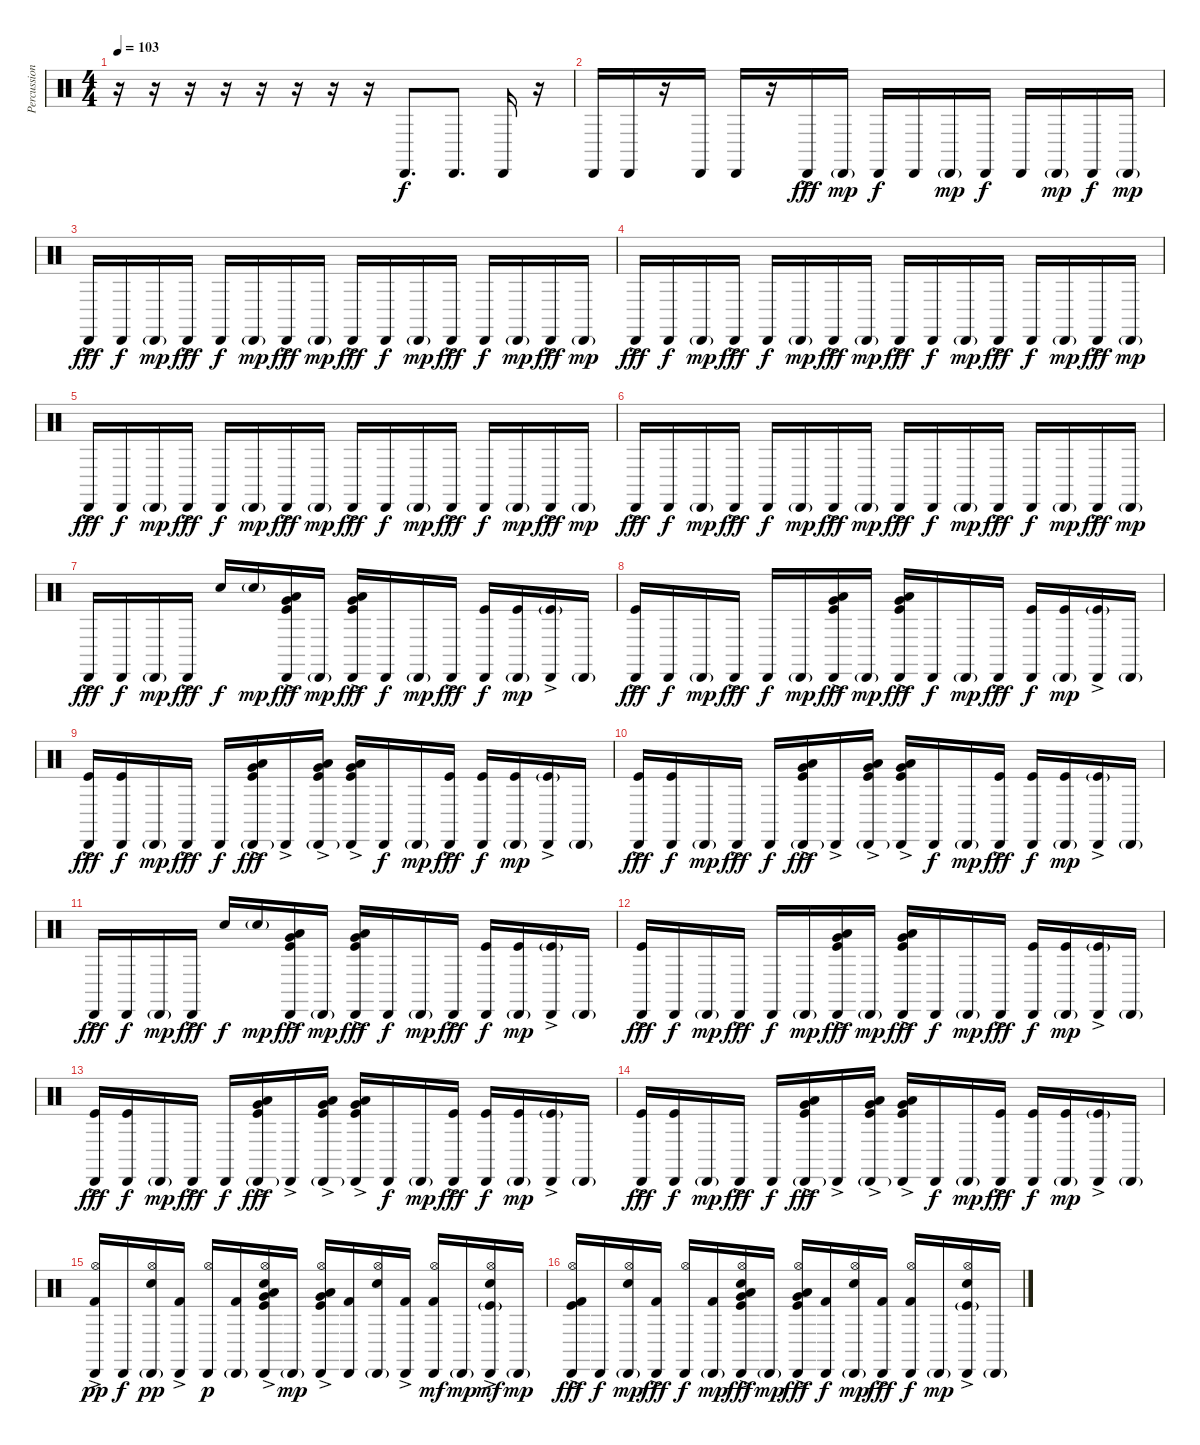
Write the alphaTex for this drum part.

\track ("Percussion" "Percussion") {instrument percussion}
\staff {score}
\articulation defaults
\ts (4 4)
\tempo 103
\clef neutral
\ks c
r.16{dy f} r.16 r.16 r.16 r.16 r.16 r.16 r.16 "Cabasa (hit)".8{d} "Cabasa (hit)".8{d} "Cabasa (hit)".16 r.16 |
"Cabasa (hit)".16 "Cabasa (hit)".16 r.16 "Cabasa (hit)".16 "Cabasa (hit)".16 r.16 "Cabasa (hit)"{ac}.16{dy fff} "Cabasa (hit)"{g}.16{dy mp} "Cabasa (hit)".16{dy f} "Cabasa (hit)".16 "Cabasa (hit)"{g}.16{dy mp} "Cabasa (hit)".16{dy f} "Cabasa (hit)".16 "Cabasa (hit)"{g}.16{dy mp} "Cabasa (hit)".16{dy f} "Cabasa (hit)"{g}.16{dy mp} |
"Cabasa (hit)"{ac}.16{dy fff} "Cabasa (hit)".16{dy f} "Cabasa (hit)"{g}.16{dy mp} "Cabasa (hit)"{ac}.16{dy fff} "Cabasa (hit)".16{dy f} "Cabasa (hit)"{g}.16{dy mp} "Cabasa (hit)"{ac}.16{dy fff} "Cabasa (hit)"{g}.16{dy mp} "Cabasa (hit)"{ac}.16{dy fff} "Cabasa (hit)".16{dy f} "Cabasa (hit)"{g}.16{dy mp} "Cabasa (hit)"{ac}.16{dy fff} "Cabasa (hit)".16{dy f} "Cabasa (hit)"{g}.16{dy mp} "Cabasa (hit)"{ac}.16{dy fff} "Cabasa (hit)"{g}.16{dy mp} |
"Cabasa (hit)"{ac}.16{dy fff} "Cabasa (hit)".16{dy f} "Cabasa (hit)"{g}.16{dy mp} "Cabasa (hit)"{ac}.16{dy fff} "Cabasa (hit)".16{dy f} "Cabasa (hit)"{g}.16{dy mp} "Cabasa (hit)"{ac}.16{dy fff} "Cabasa (hit)"{g}.16{dy mp} "Cabasa (hit)"{ac}.16{dy fff} "Cabasa (hit)".16{dy f} "Cabasa (hit)"{g}.16{dy mp} "Cabasa (hit)"{ac}.16{dy fff} "Cabasa (hit)".16{dy f} "Cabasa (hit)"{g}.16{dy mp} "Cabasa (hit)"{ac}.16{dy fff} "Cabasa (hit)"{g}.16{dy mp} |
"Cabasa (hit)"{ac}.16{dy fff} "Cabasa (hit)".16{dy f} "Cabasa (hit)"{g}.16{dy mp} "Cabasa (hit)"{ac}.16{dy fff} "Cabasa (hit)".16{dy f} "Cabasa (hit)"{g}.16{dy mp} "Cabasa (hit)"{ac}.16{dy fff} "Cabasa (hit)"{g}.16{dy mp} "Cabasa (hit)"{ac}.16{dy fff} "Cabasa (hit)".16{dy f} "Cabasa (hit)"{g}.16{dy mp} "Cabasa (hit)"{ac}.16{dy fff} "Cabasa (hit)".16{dy f} "Cabasa (hit)"{g}.16{dy mp} "Cabasa (hit)"{ac}.16{dy fff} "Cabasa (hit)"{g}.16{dy mp} |
"Cabasa (hit)"{ac}.16{dy fff} "Cabasa (hit)".16{dy f} "Cabasa (hit)"{g}.16{dy mp} "Cabasa (hit)"{ac}.16{dy fff} "Cabasa (hit)".16{dy f} "Cabasa (hit)"{g}.16{dy mp} "Cabasa (hit)"{ac}.16{dy fff} "Cabasa (hit)"{g}.16{dy mp} "Cabasa (hit)"{ac}.16{dy fff} "Cabasa (hit)".16{dy f} "Cabasa (hit)"{g}.16{dy mp} "Cabasa (hit)"{ac}.16{dy fff} "Cabasa (hit)".16{dy f} "Cabasa (hit)"{g}.16{dy mp} "Cabasa (hit)"{ac}.16{dy fff} "Cabasa (hit)"{g}.16{dy mp} |
"Cabasa (hit)"{ac}.16{dy fff} "Cabasa (hit)".16{dy f} "Cabasa (hit)"{g}.16{dy mp} "Cabasa (hit)"{ac}.16{dy fff} "Snare (hit)".16{dy f} "Snare (hit)"{g}.16{dy mp} ("Cabasa (hit)"{ac} "Low Floor Tom (hit)"{ac} "Very Low Tom (hit)"{ac} "Kick (hit)"{ac}).16{dy fff} "Cabasa (hit)"{g}.16{dy mp} ("Cabasa (hit)"{ac} "Low Floor Tom (hit)"{ac} "Very Low Tom (hit)"{ac} "Kick (hit)"{ac}).16{dy fff} "Cabasa (hit)".16{dy f} "Cabasa (hit)"{g}.16{dy mp} "Cabasa (hit)"{ac}.16{dy fff} ("Cabasa (hit)" "Kick (hit)").16{dy f} ("Cabasa (hit)"{g} "Kick (hit)").16{dy mp} ("Cabasa (hit)"{ac} "Kick (hit)"{g}).16 "Cabasa (hit)"{g}.16 |
("Cabasa (hit)"{ac} "Kick (hit)").16{dy fff} "Cabasa (hit)".16{dy f} "Cabasa (hit)"{g}.16{dy mp} "Cabasa (hit)"{ac}.16{dy fff} "Cabasa (hit)".16{dy f} "Cabasa (hit)"{g}.16{dy mp} ("Cabasa (hit)"{ac} "Low Floor Tom (hit)"{ac} "Very Low Tom (hit)"{ac} "Kick (hit)"{ac}).16{dy fff} "Cabasa (hit)"{g}.16{dy mp} ("Cabasa (hit)"{ac} "Low Floor Tom (hit)"{ac} "Very Low Tom (hit)"{ac} "Kick (hit)"{ac}).16{dy fff} "Cabasa (hit)".16{dy f} "Cabasa (hit)"{g}.16{dy mp} "Cabasa (hit)"{ac}.16{dy fff} ("Cabasa (hit)" "Kick (hit)").16{dy f} ("Cabasa (hit)"{g} "Kick (hit)").16{dy mp} ("Cabasa (hit)"{ac} "Kick (hit)"{g}).16 "Cabasa (hit)"{g}.16 |
("Cabasa (hit)"{ac} "Kick (hit)").16{dy fff} ("Cabasa (hit)" "Kick (hit)").16{dy f} "Cabasa (hit)"{g}.16{dy mp} "Cabasa (hit)"{ac}.16{dy fff} "Cabasa (hit)".16{dy f} ("Cabasa (hit)"{g} "Low Floor Tom (hit)"{ac} "Very Low Tom (hit)"{ac} "Kick (hit)"{ac}).16{dy fff} "Cabasa (hit)"{ac}.16 ("Cabasa (hit)"{g} "Low Floor Tom (hit)"{ac} "Very Low Tom (hit)"{ac} "Kick (hit)"{ac}).16 ("Cabasa (hit)"{ac} "Low Floor Tom (hit)"{ac} "Very Low Tom (hit)"{ac} "Kick (hit)"{ac}).16 "Cabasa (hit)".16{dy f} "Cabasa (hit)"{g}.16{dy mp} ("Cabasa (hit)"{ac} "Kick (hit)").16{dy fff} ("Cabasa (hit)" "Kick (hit)").16{dy f} ("Cabasa (hit)"{g} "Kick (hit)").16{dy mp} ("Cabasa (hit)"{ac} "Kick (hit)"{g}).16 "Cabasa (hit)"{g}.16 |
("Cabasa (hit)"{ac} "Kick (hit)").16{dy fff} ("Cabasa (hit)" "Kick (hit)").16{dy f} "Cabasa (hit)"{g}.16{dy mp} "Cabasa (hit)"{ac}.16{dy fff} "Cabasa (hit)".16{dy f} ("Cabasa (hit)"{g} "Low Floor Tom (hit)"{ac} "Very Low Tom (hit)"{ac} "Kick (hit)"{ac}).16{dy fff} "Cabasa (hit)"{ac}.16 ("Cabasa (hit)"{g} "Low Floor Tom (hit)"{ac} "Very Low Tom (hit)"{ac} "Kick (hit)"{ac}).16 ("Cabasa (hit)"{ac} "Low Floor Tom (hit)"{ac} "Very Low Tom (hit)"{ac} "Kick (hit)"{ac}).16 "Cabasa (hit)".16{dy f} "Cabasa (hit)"{g}.16{dy mp} ("Cabasa (hit)"{ac} "Kick (hit)").16{dy fff} ("Cabasa (hit)" "Kick (hit)").16{dy f} ("Cabasa (hit)"{g} "Kick (hit)").16{dy mp} ("Cabasa (hit)"{ac} "Kick (hit)"{g}).16 "Cabasa (hit)"{g}.16 |
"Cabasa (hit)"{ac}.16{dy fff} "Cabasa (hit)".16{dy f} "Cabasa (hit)"{g}.16{dy mp} "Cabasa (hit)"{ac}.16{dy fff} "Snare (hit)".16{dy f} "Snare (hit)"{g}.16{dy mp} ("Cabasa (hit)"{ac} "Low Floor Tom (hit)"{ac} "Very Low Tom (hit)"{ac} "Kick (hit)"{ac}).16{dy fff} "Cabasa (hit)"{g}.16{dy mp} ("Cabasa (hit)"{ac} "Low Floor Tom (hit)"{ac} "Very Low Tom (hit)"{ac} "Kick (hit)"{ac}).16{dy fff} "Cabasa (hit)".16{dy f} "Cabasa (hit)"{g}.16{dy mp} "Cabasa (hit)"{ac}.16{dy fff} ("Cabasa (hit)" "Kick (hit)").16{dy f} ("Cabasa (hit)"{g} "Kick (hit)").16{dy mp} ("Cabasa (hit)"{ac} "Kick (hit)"{g}).16 "Cabasa (hit)"{g}.16 |
("Cabasa (hit)"{ac} "Kick (hit)").16{dy fff} "Cabasa (hit)".16{dy f} "Cabasa (hit)"{g}.16{dy mp} "Cabasa (hit)"{ac}.16{dy fff} "Cabasa (hit)".16{dy f} "Cabasa (hit)"{g}.16{dy mp} ("Cabasa (hit)"{ac} "Low Floor Tom (hit)"{ac} "Very Low Tom (hit)"{ac} "Kick (hit)"{ac}).16{dy fff} "Cabasa (hit)"{g}.16{dy mp} ("Cabasa (hit)"{ac} "Low Floor Tom (hit)"{ac} "Very Low Tom (hit)"{ac} "Kick (hit)"{ac}).16{dy fff} "Cabasa (hit)".16{dy f} "Cabasa (hit)"{g}.16{dy mp} "Cabasa (hit)"{ac}.16{dy fff} ("Cabasa (hit)" "Kick (hit)").16{dy f} ("Cabasa (hit)"{g} "Kick (hit)").16{dy mp} ("Cabasa (hit)"{ac} "Kick (hit)"{g}).16 "Cabasa (hit)"{g}.16 |
("Cabasa (hit)"{ac} "Kick (hit)").16{dy fff} ("Cabasa (hit)" "Kick (hit)").16{dy f} "Cabasa (hit)"{g}.16{dy mp} "Cabasa (hit)"{ac}.16{dy fff} "Cabasa (hit)".16{dy f} ("Cabasa (hit)"{g} "Low Floor Tom (hit)"{ac} "Very Low Tom (hit)"{ac} "Kick (hit)"{ac}).16{dy fff} "Cabasa (hit)"{ac}.16 ("Cabasa (hit)"{g} "Low Floor Tom (hit)"{ac} "Very Low Tom (hit)"{ac} "Kick (hit)"{ac}).16 ("Cabasa (hit)"{ac} "Low Floor Tom (hit)"{ac} "Very Low Tom (hit)"{ac} "Kick (hit)"{ac}).16 "Cabasa (hit)".16{dy f} "Cabasa (hit)"{g}.16{dy mp} ("Cabasa (hit)"{ac} "Kick (hit)").16{dy fff} ("Cabasa (hit)" "Kick (hit)").16{dy f} ("Cabasa (hit)"{g} "Kick (hit)").16{dy mp} ("Cabasa (hit)"{ac} "Kick (hit)"{g}).16 "Cabasa (hit)"{g}.16 |
("Cabasa (hit)"{ac} "Kick (hit)").16{dy fff} ("Cabasa (hit)" "Kick (hit)").16{dy f} "Cabasa (hit)"{g}.16{dy mp} "Cabasa (hit)"{ac}.16{dy fff} "Cabasa (hit)".16{dy f} ("Cabasa (hit)"{g} "Low Floor Tom (hit)"{ac} "Very Low Tom (hit)"{ac} "Kick (hit)"{ac}).16{dy fff} "Cabasa (hit)"{ac}.16 ("Cabasa (hit)"{g} "Low Floor Tom (hit)"{ac} "Very Low Tom (hit)"{ac} "Kick (hit)"{ac}).16 ("Cabasa (hit)"{ac} "Low Floor Tom (hit)"{ac} "Very Low Tom (hit)"{ac} "Kick (hit)"{ac}).16 "Cabasa (hit)".16{dy f} "Cabasa (hit)"{g}.16{dy mp} ("Cabasa (hit)"{ac} "Kick (hit)").16{dy fff} ("Cabasa (hit)" "Kick (hit)").16{dy f} ("Cabasa (hit)"{g} "Kick (hit)").16{dy mp} ("Cabasa (hit)"{ac} "Kick (hit)"{g}).16 "Cabasa (hit)"{g}.16 |
("Cabasa (hit)"{ac} "Hi-Hat (open)" "Kick (hit) 2").16{dy pp} "Cabasa (hit)".16{dy f} ("Cabasa (hit)"{g} "Hi-Hat (open)" "Electric Snare (hit)").16{dy pp} ("Cabasa (hit)"{ac} "Kick (hit) 2").16 ("Cabasa (hit)" "Hi-Hat (open)").16{dy p} ("Cabasa (hit)"{g} "Kick (hit) 2").16 ("Cabasa (hit)"{ac} "Low Floor Tom (hit)"{ac} "Very Low Tom (hit)"{ac} "Kick (hit)"{ac} "Hi-Hat (open)" "Electric Snare (hit)").16 "Cabasa (hit)"{g}.16{dy mp} ("Cabasa (hit)"{ac} "Low Floor Tom (hit)"{ac} "Very Low Tom (hit)"{ac} "Kick (hit)"{ac} "Hi-Hat (open)").16 ("Cabasa (hit)" "Kick (hit) 2").16 ("Cabasa (hit)"{g} "Hi-Hat (open)" "Electric Snare (hit)").16 ("Cabasa (hit)"{ac} "Kick (hit) 2").16 ("Cabasa (hit)" "Hi-Hat (open)" "Kick (hit) 2").16{dy mf} "Cabasa (hit)"{g}.16{dy mp} ("Cabasa (hit)"{ac} "Kick (hit)"{g} "Hi-Hat (open)" "Electric Snare (hit)").16{dy mf} "Cabasa (hit)"{g}.16{dy mp} |
("Cabasa (hit)"{ac} "Kick (hit)" "Hi-Hat (open)" "Kick (hit) 2").16{dy fff} "Cabasa (hit)".16{dy f} ("Cabasa (hit)"{g} "Hi-Hat (open)" "Electric Snare (hit)").16{dy mp} ("Cabasa (hit)"{ac} "Kick (hit) 2").16{dy fff} ("Cabasa (hit)" "Hi-Hat (open)").16{dy f} ("Cabasa (hit)"{g} "Kick (hit) 2").16{dy mp} ("Cabasa (hit)"{ac} "Low Floor Tom (hit)"{ac} "Very Low Tom (hit)"{ac} "Kick (hit)"{ac} "Hi-Hat (open)" "Electric Snare (hit)").16{dy fff} "Cabasa (hit)"{g}.16{dy mp} ("Cabasa (hit)"{ac} "Low Floor Tom (hit)"{ac} "Very Low Tom (hit)"{ac} "Kick (hit)"{ac} "Hi-Hat (open)").16{dy fff} ("Cabasa (hit)" "Kick (hit) 2").16{dy f} ("Cabasa (hit)"{g} "Hi-Hat (open)" "Electric Snare (hit)").16{dy mp} ("Cabasa (hit)"{ac} "Kick (hit) 2").16{dy fff} ("Cabasa (hit)" "Hi-Hat (open)" "Kick (hit) 2").16{dy f} "Cabasa (hit)"{g}.16{dy mp} ("Cabasa (hit)"{ac} "Kick (hit)"{g} "Hi-Hat (open)" "Electric Snare (hit)").16 "Cabasa (hit)"{g}.16
